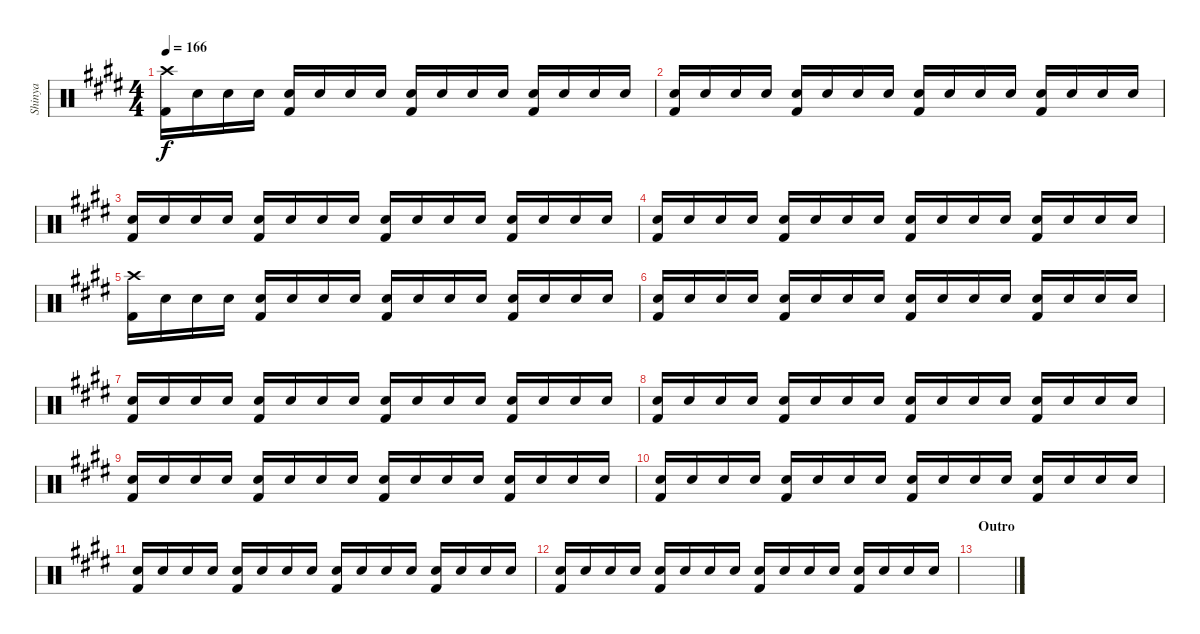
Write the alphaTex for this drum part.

\track ("Shinya" "Shinya") {instrument percussion}
\staff {score}
\articulation defaults
\ts (4 4)
\tempo 166
\clef neutral
\ks e
("Crash high (hit)" "Kick (hit) 2").16{dy f} "Snare (hit) 2".16 "Snare (hit) 2".16 "Snare (hit) 2".16 ("Snare (hit) 2" "Kick (hit) 2").16 "Snare (hit) 2".16 "Snare (hit) 2".16 "Snare (hit) 2".16 ("Snare (hit) 2" "Kick (hit) 2").16 "Snare (hit) 2".16 "Snare (hit) 2".16 "Snare (hit) 2".16 ("Snare (hit) 2" "Kick (hit) 2").16 "Snare (hit) 2".16 "Snare (hit) 2".16 "Snare (hit) 2".16 |
("Snare (hit) 2" "Kick (hit) 2").16 "Snare (hit) 2".16 "Snare (hit) 2".16 "Snare (hit) 2".16 ("Snare (hit) 2" "Kick (hit) 2").16 "Snare (hit) 2".16 "Snare (hit) 2".16 "Snare (hit) 2".16 ("Snare (hit) 2" "Kick (hit) 2").16 "Snare (hit) 2".16 "Snare (hit) 2".16 "Snare (hit) 2".16 ("Snare (hit) 2" "Kick (hit) 2").16 "Snare (hit) 2".16 "Snare (hit) 2".16 "Snare (hit) 2".16 |
("Snare (hit) 2" "Kick (hit) 2").16 "Snare (hit) 2".16 "Snare (hit) 2".16 "Snare (hit) 2".16 ("Snare (hit) 2" "Kick (hit) 2").16 "Snare (hit) 2".16 "Snare (hit) 2".16 "Snare (hit) 2".16 ("Snare (hit) 2" "Kick (hit) 2").16 "Snare (hit) 2".16 "Snare (hit) 2".16 "Snare (hit) 2".16 ("Snare (hit) 2" "Kick (hit) 2").16 "Snare (hit) 2".16 "Snare (hit) 2".16 "Snare (hit) 2".16 |
("Snare (hit) 2" "Kick (hit) 2").16 "Snare (hit) 2".16 "Snare (hit) 2".16 "Snare (hit) 2".16 ("Snare (hit) 2" "Kick (hit) 2").16 "Snare (hit) 2".16 "Snare (hit) 2".16 "Snare (hit) 2".16 ("Snare (hit) 2" "Kick (hit) 2").16 "Snare (hit) 2".16 "Snare (hit) 2".16 "Snare (hit) 2".16 ("Snare (hit) 2" "Kick (hit) 2").16 "Snare (hit) 2".16 "Snare (hit) 2".16 "Snare (hit) 2".16 |
("Crash high (hit)" "Kick (hit) 2").16 "Snare (hit) 2".16 "Snare (hit) 2".16 "Snare (hit) 2".16 ("Snare (hit) 2" "Kick (hit) 2").16 "Snare (hit) 2".16 "Snare (hit) 2".16 "Snare (hit) 2".16 ("Snare (hit) 2" "Kick (hit) 2").16 "Snare (hit) 2".16 "Snare (hit) 2".16 "Snare (hit) 2".16 ("Snare (hit) 2" "Kick (hit) 2").16 "Snare (hit) 2".16 "Snare (hit) 2".16 "Snare (hit) 2".16 |
("Snare (hit) 2" "Kick (hit) 2").16 "Snare (hit) 2".16 "Snare (hit) 2".16 "Snare (hit) 2".16 ("Snare (hit) 2" "Kick (hit) 2").16 "Snare (hit) 2".16 "Snare (hit) 2".16 "Snare (hit) 2".16 ("Snare (hit) 2" "Kick (hit) 2").16 "Snare (hit) 2".16 "Snare (hit) 2".16 "Snare (hit) 2".16 ("Snare (hit) 2" "Kick (hit) 2").16 "Snare (hit) 2".16 "Snare (hit) 2".16 "Snare (hit) 2".16 |
("Snare (hit) 2" "Kick (hit) 2").16 "Snare (hit) 2".16 "Snare (hit) 2".16 "Snare (hit) 2".16 ("Snare (hit) 2" "Kick (hit) 2").16 "Snare (hit) 2".16 "Snare (hit) 2".16 "Snare (hit) 2".16 ("Snare (hit) 2" "Kick (hit) 2").16 "Snare (hit) 2".16 "Snare (hit) 2".16 "Snare (hit) 2".16 ("Snare (hit) 2" "Kick (hit) 2").16 "Snare (hit) 2".16 "Snare (hit) 2".16 "Snare (hit) 2".16 |
("Snare (hit) 2" "Kick (hit) 2").16 "Snare (hit) 2".16 "Snare (hit) 2".16 "Snare (hit) 2".16 ("Snare (hit) 2" "Kick (hit) 2").16 "Snare (hit) 2".16 "Snare (hit) 2".16 "Snare (hit) 2".16 ("Snare (hit) 2" "Kick (hit) 2").16 "Snare (hit) 2".16 "Snare (hit) 2".16 "Snare (hit) 2".16 ("Snare (hit) 2" "Kick (hit) 2").16 "Snare (hit) 2".16 "Snare (hit) 2".16 "Snare (hit) 2".16 |
("Snare (hit) 2" "Kick (hit) 2").16 "Snare (hit) 2".16 "Snare (hit) 2".16 "Snare (hit) 2".16 ("Snare (hit) 2" "Kick (hit) 2").16 "Snare (hit) 2".16 "Snare (hit) 2".16 "Snare (hit) 2".16 ("Snare (hit) 2" "Kick (hit) 2").16 "Snare (hit) 2".16 "Snare (hit) 2".16 "Snare (hit) 2".16 ("Snare (hit) 2" "Kick (hit) 2").16 "Snare (hit) 2".16 "Snare (hit) 2".16 "Snare (hit) 2".16 |
("Snare (hit) 2" "Kick (hit) 2").16 "Snare (hit) 2".16 "Snare (hit) 2".16 "Snare (hit) 2".16 ("Snare (hit) 2" "Kick (hit) 2").16 "Snare (hit) 2".16 "Snare (hit) 2".16 "Snare (hit) 2".16 ("Snare (hit) 2" "Kick (hit) 2").16 "Snare (hit) 2".16 "Snare (hit) 2".16 "Snare (hit) 2".16 ("Snare (hit) 2" "Kick (hit) 2").16 "Snare (hit) 2".16 "Snare (hit) 2".16 "Snare (hit) 2".16 |
("Snare (hit) 2" "Kick (hit) 2").16 "Snare (hit) 2".16 "Snare (hit) 2".16 "Snare (hit) 2".16 ("Snare (hit) 2" "Kick (hit) 2").16 "Snare (hit) 2".16 "Snare (hit) 2".16 "Snare (hit) 2".16 ("Snare (hit) 2" "Kick (hit) 2").16 "Snare (hit) 2".16 "Snare (hit) 2".16 "Snare (hit) 2".16 ("Snare (hit) 2" "Kick (hit) 2").16 "Snare (hit) 2".16 "Snare (hit) 2".16 "Snare (hit) 2".16 |
("Snare (hit) 2" "Kick (hit) 2").16{volume 12} "Snare (hit) 2".16 "Snare (hit) 2".16 "Snare (hit) 2".16 ("Snare (hit) 2" "Kick (hit) 2").16{volume 13} "Snare (hit) 2".16 "Snare (hit) 2".16 "Snare (hit) 2".16 ("Snare (hit) 2" "Kick (hit) 2").16{volume 14} "Snare (hit) 2".16 "Snare (hit) 2".16 "Snare (hit) 2".16 ("Snare (hit) 2" "Kick (hit) 2").16{volume 15} "Snare (hit) 2".16 "Snare (hit) 2".16{volume 16} "Snare (hit) 2".16 |
\section ("" "Outro")
